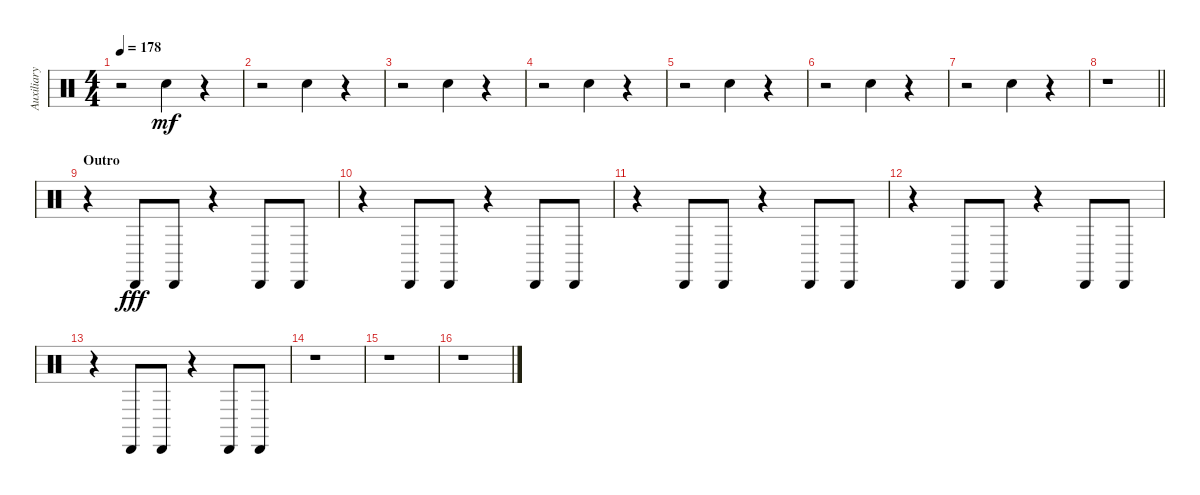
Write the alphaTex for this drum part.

\track ("Auxiliary Percussion" "Auxiliary ") {instrument percussion}
\staff {score}
\articulation defaults
\ts (4 4)
\tempo 178
\clef neutral
\ks c
r.2{dy fff} "Hand Clap (hit)".4{dy mf} r.4 |
r.2 "Hand Clap (hit)".4 r.4 |
r.2 "Hand Clap (hit)".4 r.4 |
r.2 "Hand Clap (hit)".4 r.4 |
r.2 "Hand Clap (hit)".4 r.4 |
r.2 "Hand Clap (hit)".4 r.4 |
r.2 "Hand Clap (hit)".4 r.4 |
\barLineRight lightlight
r.1 |
\section ("" "Outro")
r.4 "Cabasa (hit)".8{dy fff} "Cabasa (hit)".8 r.4 "Cabasa (hit)".8 "Cabasa (hit)".8 |
r.4 "Cabasa (hit)".8 "Cabasa (hit)".8 r.4 "Cabasa (hit)".8 "Cabasa (hit)".8 |
r.4 "Cabasa (hit)".8 "Cabasa (hit)".8 r.4 "Cabasa (hit)".8 "Cabasa (hit)".8 |
r.4 "Cabasa (hit)".8 "Cabasa (hit)".8 r.4 "Cabasa (hit)".8 "Cabasa (hit)".8 |
r.4 "Cabasa (hit)".8 "Cabasa (hit)".8 r.4 "Cabasa (hit)".8 "Cabasa (hit)".8 |
r.1 |
r.1 |
r.1
